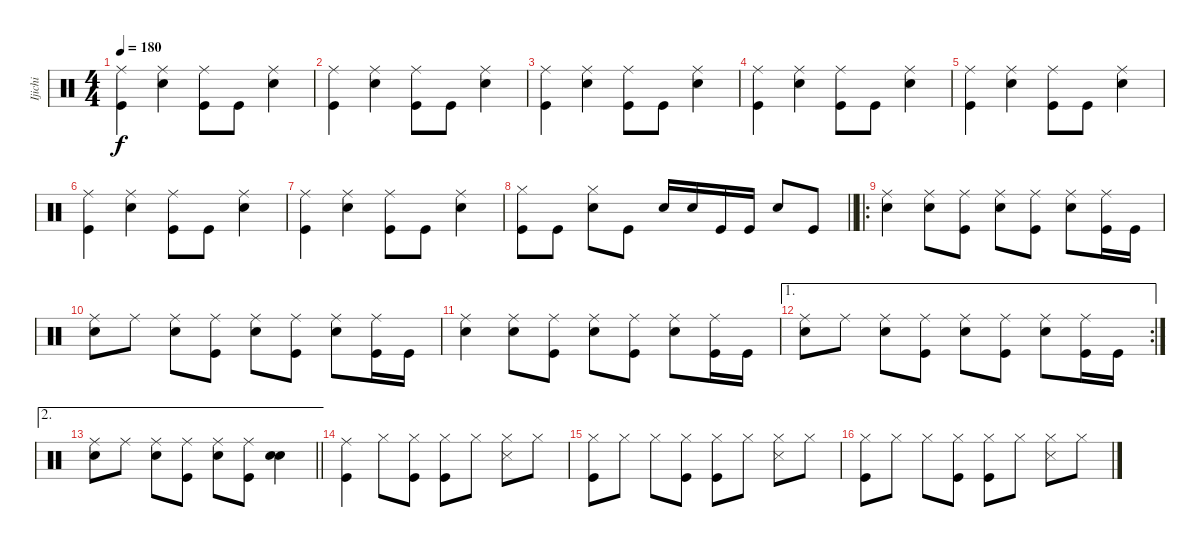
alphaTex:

\track ("Ijichi" "Ijichi") {instrument percussion}
\staff {score}
\articulation defaults
\ts (4 4)
\tempo 180
\clef neutral
\ks c
("Ride (middle)" "Kick (hit)").4{dy f} ("Ride (middle)" "Snare (hit) 2").4 ("Ride (middle)" "Kick (hit)").8 "Kick (hit)".8 ("Ride (middle)" "Snare (hit) 2").4 |
("Ride (middle)" "Kick (hit)").4 ("Ride (middle)" "Snare (hit) 2").4 ("Ride (middle)" "Kick (hit)").8 "Kick (hit)".8 ("Ride (middle)" "Snare (hit) 2").4 |
("Ride (middle)" "Kick (hit)").4 ("Ride (middle)" "Snare (hit) 2").4 ("Ride (middle)" "Kick (hit)").8 "Kick (hit)".8 ("Ride (middle)" "Snare (hit) 2").4 |
("Ride (middle)" "Kick (hit)").4 ("Ride (middle)" "Snare (hit) 2").4 ("Ride (middle)" "Kick (hit)").8 "Kick (hit)".8 ("Ride (middle)" "Snare (hit) 2").4 |
("Ride (middle)" "Kick (hit)").4 ("Ride (middle)" "Snare (hit) 2").4 ("Ride (middle)" "Kick (hit)").8 "Kick (hit)".8 ("Ride (middle)" "Snare (hit) 2").4 |
("Ride (middle)" "Kick (hit)").4 ("Ride (middle)" "Snare (hit) 2").4 ("Ride (middle)" "Kick (hit)").8 "Kick (hit)".8 ("Ride (middle)" "Snare (hit) 2").4 |
("Ride (middle)" "Kick (hit)").4 ("Ride (middle)" "Snare (hit) 2").4 ("Ride (middle)" "Kick (hit)").8 "Kick (hit)".8 ("Ride (middle)" "Snare (hit) 2").4 |
\barLineRight lightlight
("Hi-Hat (closed)" "Kick (hit)").8 "Kick (hit)".8 ("Hi-Hat (closed)" "Snare (hit) 2").8 "Kick (hit)".8 "Snare (hit) 2".16 "Snare (hit) 2".16 "Kick (hit)".16 "Kick (hit)".16 "Snare (hit) 2".8 "Kick (hit)".8 |
\ro
("Ride (middle)" "Snare (hit) 2").4 ("Ride (middle)" "Snare (hit) 2").8 ("Ride (middle)" "Kick (hit)").8 ("Ride (middle)" "Snare (hit) 2").8 ("Ride (middle)" "Kick (hit)").8 ("Ride (middle)" "Snare (hit) 2").8 ("Ride (middle)" "Kick (hit)").16 "Kick (hit)".16 |
("Ride (middle)" "Snare (hit) 2").8 "Ride (middle)".8 ("Ride (middle)" "Snare (hit) 2").8 ("Ride (middle)" "Kick (hit)").8 ("Ride (middle)" "Snare (hit) 2").8 ("Ride (middle)" "Kick (hit)").8 ("Ride (middle)" "Snare (hit) 2").8 ("Ride (middle)" "Kick (hit)").16 "Kick (hit)".16 |
("Ride (middle)" "Snare (hit) 2").4 ("Ride (middle)" "Snare (hit) 2").8 ("Ride (middle)" "Kick (hit)").8 ("Ride (middle)" "Snare (hit) 2").8 ("Ride (middle)" "Kick (hit)").8 ("Ride (middle)" "Snare (hit) 2").8 ("Ride (middle)" "Kick (hit)").16 "Kick (hit)".16 |
\ae 1
\rc 2
("Ride (middle)" "Snare (hit) 2").8 "Ride (middle)".8 ("Ride (middle)" "Snare (hit) 2").8 ("Ride (middle)" "Kick (hit)").8 ("Ride (middle)" "Snare (hit) 2").8 ("Ride (middle)" "Kick (hit)").8 ("Ride (middle)" "Snare (hit) 2").8 ("Ride (middle)" "Kick (hit)").16 "Kick (hit)".16 |
\ae 2
\barLineRight lightlight
("Ride (middle)" "Snare (hit) 2").8 "Ride (middle)".8 ("Ride (middle)" "Snare (hit) 2").8 ("Ride (middle)" "Kick (hit)").8 ("Ride (middle)" "Snare (hit) 2").8 ("Ride (middle)" "Kick (hit)").8 ("Snare (hit) 2" "Snare (hit) 2").4 |
("Ride (middle)" "Kick (hit)").4 "Hi-Hat (closed)".8 ("Hi-Hat (closed)" "Kick (hit)").8 ("Hi-Hat (closed)" "Kick (hit)").8 "Hi-Hat (closed)".8 ("Hi-Hat (closed)" "Snare (side stick) 3").8 "Hi-Hat (closed)".8 |
("Hi-Hat (closed)" "Kick (hit)").8 "Hi-Hat (closed)".8 "Hi-Hat (closed)".8 ("Hi-Hat (closed)" "Kick (hit)").8 ("Hi-Hat (closed)" "Kick (hit)").8 "Hi-Hat (closed)".8 ("Hi-Hat (closed)" "Snare (side stick) 3").8 "Hi-Hat (closed)".8 |
("Hi-Hat (closed)" "Kick (hit)").8 "Hi-Hat (closed)".8 "Hi-Hat (closed)".8 ("Hi-Hat (closed)" "Kick (hit)").8 ("Hi-Hat (closed)" "Kick (hit)").8 "Hi-Hat (closed)".8 ("Hi-Hat (closed)" "Snare (side stick) 3").8 "Hi-Hat (closed)".8
